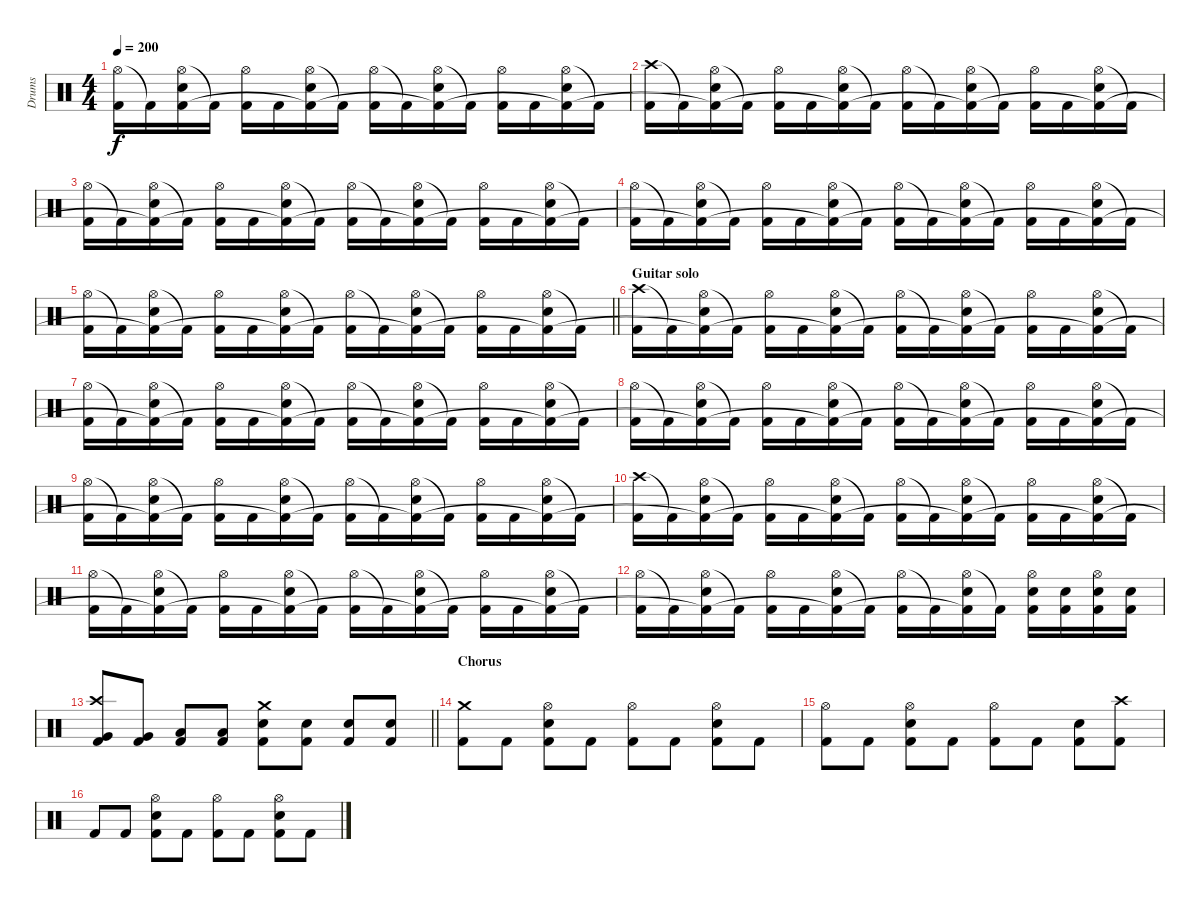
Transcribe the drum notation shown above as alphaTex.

\track ("Drums" "Drums") {instrument percussion}
\staff {score}
\articulation defaults
\ts (4 4)
\tempo 200
\clef neutral
\ks c
("Hi-Hat (open)" "Kick (hit) 2").16{dy f} "Kick (hit) 2"{t}.16 ("Hi-Hat (open)" "Snare (hit) 2" "Kick (hit) 2"{t}).16 "Kick (hit) 2"{t}.16 ("Hi-Hat (open)" "Kick (hit) 2").16 "Kick (hit) 2".16 ("Hi-Hat (open)" "Snare (hit) 2" "Kick (hit) 2"{t}).16 "Kick (hit) 2"{t}.16 ("Hi-Hat (open)" "Kick (hit) 2").16 "Kick (hit) 2"{t}.16 ("Hi-Hat (open)" "Snare (hit) 2" "Kick (hit) 2"{t}).16 "Kick (hit) 2"{t}.16 ("Hi-Hat (open)" "Kick (hit) 2").16 "Kick (hit) 2".16 ("Hi-Hat (open)" "Snare (hit) 2" "Kick (hit) 2"{t}).16 "Kick (hit) 2"{t}.16 |
("Crash high (hit)" "Kick (hit) 2").16 "Kick (hit) 2"{t}.16 ("Hi-Hat (open)" "Snare (hit) 2" "Kick (hit) 2"{t}).16 "Kick (hit) 2"{t}.16 ("Hi-Hat (open)" "Kick (hit) 2").16 "Kick (hit) 2".16 ("Hi-Hat (open)" "Snare (hit) 2" "Kick (hit) 2"{t}).16 "Kick (hit) 2"{t}.16 ("Hi-Hat (open)" "Kick (hit) 2").16 "Kick (hit) 2"{t}.16 ("Hi-Hat (open)" "Snare (hit) 2" "Kick (hit) 2"{t}).16 "Kick (hit) 2"{t}.16 ("Hi-Hat (open)" "Kick (hit) 2").16 "Kick (hit) 2".16 ("Hi-Hat (open)" "Snare (hit) 2" "Kick (hit) 2"{t}).16 "Kick (hit) 2"{t}.16 |
("Hi-Hat (open)" "Kick (hit) 2").16 "Kick (hit) 2"{t}.16 ("Hi-Hat (open)" "Snare (hit) 2" "Kick (hit) 2"{t}).16 "Kick (hit) 2"{t}.16 ("Hi-Hat (open)" "Kick (hit) 2").16 "Kick (hit) 2".16 ("Hi-Hat (open)" "Snare (hit) 2" "Kick (hit) 2"{t}).16 "Kick (hit) 2"{t}.16 ("Hi-Hat (open)" "Kick (hit) 2").16 "Kick (hit) 2"{t}.16 ("Hi-Hat (open)" "Snare (hit) 2" "Kick (hit) 2"{t}).16 "Kick (hit) 2"{t}.16 ("Hi-Hat (open)" "Kick (hit) 2").16 "Kick (hit) 2".16 ("Hi-Hat (open)" "Snare (hit) 2" "Kick (hit) 2"{t}).16 "Kick (hit) 2"{t}.16 |
("Hi-Hat (open)" "Kick (hit) 2").16 "Kick (hit) 2"{t}.16 ("Hi-Hat (open)" "Snare (hit) 2" "Kick (hit) 2"{t}).16 "Kick (hit) 2"{t}.16 ("Hi-Hat (open)" "Kick (hit) 2").16 "Kick (hit) 2".16 ("Hi-Hat (open)" "Snare (hit) 2" "Kick (hit) 2"{t}).16 "Kick (hit) 2"{t}.16 ("Hi-Hat (open)" "Kick (hit) 2").16 "Kick (hit) 2"{t}.16 ("Hi-Hat (open)" "Snare (hit) 2" "Kick (hit) 2"{t}).16 "Kick (hit) 2"{t}.16 ("Hi-Hat (open)" "Kick (hit) 2").16 "Kick (hit) 2".16 ("Hi-Hat (open)" "Snare (hit) 2" "Kick (hit) 2"{t}).16 "Kick (hit) 2"{t}.16 |
\barLineRight lightlight
("Hi-Hat (open)" "Kick (hit) 2").16 "Kick (hit) 2"{t}.16 ("Hi-Hat (open)" "Snare (hit) 2" "Kick (hit) 2"{t}).16 "Kick (hit) 2"{t}.16 ("Hi-Hat (open)" "Kick (hit) 2").16 "Kick (hit) 2".16 ("Hi-Hat (open)" "Snare (hit) 2" "Kick (hit) 2"{t}).16 "Kick (hit) 2"{t}.16 ("Hi-Hat (open)" "Kick (hit) 2").16 "Kick (hit) 2"{t}.16 ("Hi-Hat (open)" "Snare (hit) 2" "Kick (hit) 2"{t}).16 "Kick (hit) 2"{t}.16 ("Hi-Hat (open)" "Kick (hit) 2").16 "Kick (hit) 2".16 ("Hi-Hat (open)" "Snare (hit) 2" "Kick (hit) 2"{t}).16 "Kick (hit) 2"{t}.16 |
\section ("" "Guitar solo")
("Crash high (hit)" "Kick (hit) 2").16 "Kick (hit) 2"{t}.16 ("Hi-Hat (open)" "Snare (hit) 2" "Kick (hit) 2"{t}).16 "Kick (hit) 2"{t}.16 ("Hi-Hat (open)" "Kick (hit) 2").16 "Kick (hit) 2".16 ("Hi-Hat (open)" "Snare (hit) 2" "Kick (hit) 2"{t}).16 "Kick (hit) 2"{t}.16 ("Hi-Hat (open)" "Kick (hit) 2").16 "Kick (hit) 2"{t}.16 ("Hi-Hat (open)" "Snare (hit) 2" "Kick (hit) 2"{t}).16 "Kick (hit) 2"{t}.16 ("Hi-Hat (open)" "Kick (hit) 2").16 "Kick (hit) 2".16 ("Hi-Hat (open)" "Snare (hit) 2" "Kick (hit) 2"{t}).16 "Kick (hit) 2"{t}.16 |
("Hi-Hat (open)" "Kick (hit) 2").16 "Kick (hit) 2"{t}.16 ("Hi-Hat (open)" "Snare (hit) 2" "Kick (hit) 2"{t}).16 "Kick (hit) 2"{t}.16 ("Hi-Hat (open)" "Kick (hit) 2").16 "Kick (hit) 2".16 ("Hi-Hat (open)" "Snare (hit) 2" "Kick (hit) 2"{t}).16 "Kick (hit) 2"{t}.16 ("Hi-Hat (open)" "Kick (hit) 2").16 "Kick (hit) 2"{t}.16 ("Hi-Hat (open)" "Snare (hit) 2" "Kick (hit) 2"{t}).16 "Kick (hit) 2"{t}.16 ("Hi-Hat (open)" "Kick (hit) 2").16 "Kick (hit) 2".16 ("Hi-Hat (open)" "Snare (hit) 2" "Kick (hit) 2"{t}).16 "Kick (hit) 2"{t}.16 |
("Hi-Hat (open)" "Kick (hit) 2").16 "Kick (hit) 2"{t}.16 ("Hi-Hat (open)" "Snare (hit) 2" "Kick (hit) 2"{t}).16 "Kick (hit) 2"{t}.16 ("Hi-Hat (open)" "Kick (hit) 2").16 "Kick (hit) 2".16 ("Hi-Hat (open)" "Snare (hit) 2" "Kick (hit) 2"{t}).16 "Kick (hit) 2"{t}.16 ("Hi-Hat (open)" "Kick (hit) 2").16 "Kick (hit) 2"{t}.16 ("Hi-Hat (open)" "Snare (hit) 2" "Kick (hit) 2"{t}).16 "Kick (hit) 2"{t}.16 ("Hi-Hat (open)" "Kick (hit) 2").16 "Kick (hit) 2".16 ("Hi-Hat (open)" "Snare (hit) 2" "Kick (hit) 2"{t}).16 "Kick (hit) 2"{t}.16 |
("Hi-Hat (open)" "Kick (hit) 2").16 "Kick (hit) 2"{t}.16 ("Hi-Hat (open)" "Snare (hit) 2" "Kick (hit) 2"{t}).16 "Kick (hit) 2"{t}.16 ("Hi-Hat (open)" "Kick (hit) 2").16 "Kick (hit) 2".16 ("Hi-Hat (open)" "Snare (hit) 2" "Kick (hit) 2"{t}).16 "Kick (hit) 2"{t}.16 ("Hi-Hat (open)" "Kick (hit) 2").16 "Kick (hit) 2"{t}.16 ("Hi-Hat (open)" "Snare (hit) 2" "Kick (hit) 2"{t}).16 "Kick (hit) 2"{t}.16 ("Hi-Hat (open)" "Kick (hit) 2").16 "Kick (hit) 2".16 ("Hi-Hat (open)" "Snare (hit) 2" "Kick (hit) 2"{t}).16 "Kick (hit) 2"{t}.16 |
("Crash high (hit)" "Kick (hit) 2").16 "Kick (hit) 2"{t}.16 ("Hi-Hat (open)" "Snare (hit) 2" "Kick (hit) 2"{t}).16 "Kick (hit) 2"{t}.16 ("Hi-Hat (open)" "Kick (hit) 2").16 "Kick (hit) 2".16 ("Hi-Hat (open)" "Snare (hit) 2" "Kick (hit) 2"{t}).16 "Kick (hit) 2"{t}.16 ("Hi-Hat (open)" "Kick (hit) 2").16 "Kick (hit) 2"{t}.16 ("Hi-Hat (open)" "Snare (hit) 2" "Kick (hit) 2"{t}).16 "Kick (hit) 2"{t}.16 ("Hi-Hat (open)" "Kick (hit) 2").16 "Kick (hit) 2".16 ("Hi-Hat (open)" "Snare (hit) 2" "Kick (hit) 2"{t}).16 "Kick (hit) 2"{t}.16 |
("Hi-Hat (open)" "Kick (hit) 2").16 "Kick (hit) 2"{t}.16 ("Hi-Hat (open)" "Snare (hit) 2" "Kick (hit) 2"{t}).16 "Kick (hit) 2"{t}.16 ("Hi-Hat (open)" "Kick (hit) 2").16 "Kick (hit) 2".16 ("Hi-Hat (open)" "Snare (hit) 2" "Kick (hit) 2"{t}).16 "Kick (hit) 2"{t}.16 ("Hi-Hat (open)" "Kick (hit) 2").16 "Kick (hit) 2"{t}.16 ("Hi-Hat (open)" "Snare (hit) 2" "Kick (hit) 2"{t}).16 "Kick (hit) 2"{t}.16 ("Hi-Hat (open)" "Kick (hit) 2").16 "Kick (hit) 2".16 ("Hi-Hat (open)" "Snare (hit) 2" "Kick (hit) 2"{t}).16 "Kick (hit) 2"{t}.16 |
("Hi-Hat (open)" "Kick (hit) 2").16 "Kick (hit) 2"{t}.16 ("Hi-Hat (open)" "Snare (hit) 2" "Kick (hit) 2"{t}).16 "Kick (hit) 2"{t}.16 ("Hi-Hat (open)" "Kick (hit) 2").16 "Kick (hit) 2".16 ("Hi-Hat (open)" "Snare (hit) 2" "Kick (hit) 2"{t}).16 "Kick (hit) 2"{t}.16 ("Hi-Hat (open)" "Kick (hit) 2").16 "Kick (hit) 2"{t}.16 ("Hi-Hat (open)" "Snare (hit) 2" "Kick (hit) 2"{t}).16 "Kick (hit) 2"{t}.16 ("Hi-Hat (open)" "Snare (hit) 2" "Kick (hit) 2").16 ("Snare (hit) 2" "Kick (hit) 2").16 ("Hi-Hat (open)" "Snare (hit) 2" "Kick (hit) 2").16 ("Snare (hit) 2" "Kick (hit) 2").16 |
\barLineRight lightlight
("Crash high (hit)" "Very Low Tom (hit)" "Kick (hit) 2").8 ("Very Low Tom (hit)" "Kick (hit) 2").8 ("Low Tom (hit)" "Kick (hit) 2").8 ("Low Tom (hit)" "Kick (hit) 2").8 ("Crash medium (hit)" "Snare (hit) 2" "Kick (hit) 2").8 ("Snare (hit) 2" "Kick (hit) 2").8 ("Snare (hit) 2" "Kick (hit) 2").8 ("Snare (hit) 2" "Kick (hit) 2").8 |
\section ("" "Chorus")
("Crash medium (hit)" "Kick (hit) 2").8 "Kick (hit) 2".8 ("Hi-Hat (open)" "Snare (hit) 2" "Kick (hit) 2").8 "Kick (hit) 2".8 ("Hi-Hat (open)" "Kick (hit) 2").8 "Kick (hit) 2".8 ("Hi-Hat (open)" "Snare (hit) 2" "Kick (hit) 2").8 "Kick (hit) 2".8 |
("Hi-Hat (open)" "Kick (hit) 2").8 "Kick (hit) 2".8 ("Hi-Hat (open)" "Snare (hit) 2" "Kick (hit) 2").8 "Kick (hit) 2".8 ("Hi-Hat (open)" "Kick (hit) 2").8 "Kick (hit) 2".8 ("Snare (hit) 2" "Kick (hit) 2").8 ("Crash high (hit)" "Kick (hit) 2").8 |
"Kick (hit) 2".8 "Kick (hit) 2".8 ("Hi-Hat (open)" "Snare (hit) 2" "Kick (hit) 2").8 "Kick (hit) 2".8 ("Hi-Hat (open)" "Kick (hit) 2").8 "Kick (hit) 2".8 ("Hi-Hat (open)" "Snare (hit) 2" "Kick (hit) 2").8 "Kick (hit) 2".8
